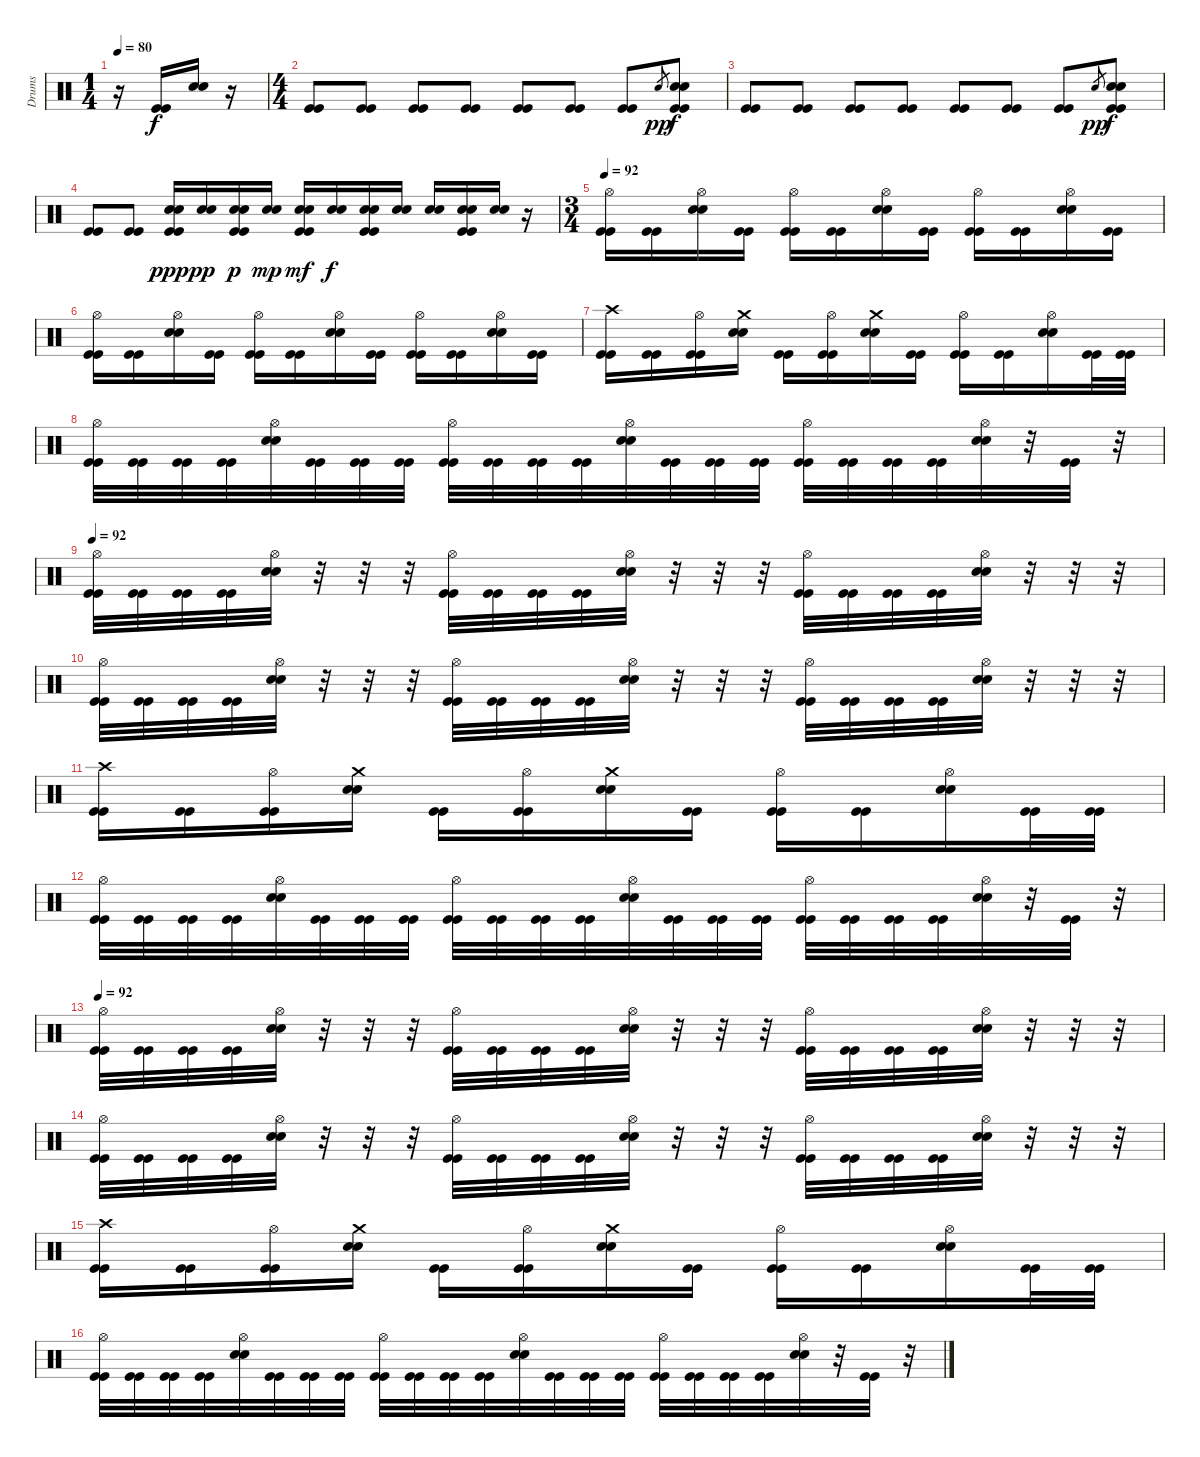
\track ("Drums" "Drums") {instrument percussion}
\staff {score}
\articulation defaults
\ts (1 4)
\tempo 80
\clef neutral
\ks c
r.16{dy f} ("Kick (hit)" "Kick (hit)").16 ("Snare (hit) 2" "Snare (hit) 2").16 r.16 |
\ts (4 4)
("Kick (hit)" "Kick (hit)").8 ("Kick (hit)" "Kick (hit)").8 ("Kick (hit)" "Kick (hit)").8 ("Kick (hit)" "Kick (hit)").8 ("Kick (hit)" "Kick (hit)").8 ("Kick (hit)" "Kick (hit)").8 ("Kick (hit)" "Kick (hit)").8 "Snare (hit) 2".8{gr dy pp} ("Snare (hit) 2" "Snare (hit) 2" "Kick (hit)" "Kick (hit)").8{dy f} |
("Kick (hit)" "Kick (hit)").8 ("Kick (hit)" "Kick (hit)").8 ("Kick (hit)" "Kick (hit)").8 ("Kick (hit)" "Kick (hit)").8 ("Kick (hit)" "Kick (hit)").8 ("Kick (hit)" "Kick (hit)").8 ("Kick (hit)" "Kick (hit)").8 "Snare (hit) 2".8{gr dy pp} ("Snare (hit) 2" "Snare (hit) 2" "Kick (hit)" "Kick (hit)").8{dy f} |
("Kick (hit)" "Kick (hit)").8 ("Kick (hit)" "Kick (hit)").8 ("Snare (hit) 2" "Snare (hit) 2" "Kick (hit)" "Kick (hit)").16{dy ppp} ("Snare (hit) 2" "Snare (hit) 2").16{dy pp} ("Snare (hit) 2" "Snare (hit) 2" "Kick (hit)" "Kick (hit)").16{dy p} ("Snare (hit) 2" "Snare (hit) 2").16{dy mp} ("Snare (hit) 2" "Snare (hit) 2" "Kick (hit)" "Kick (hit)").16{dy mf} ("Snare (hit) 2" "Snare (hit) 2").16{dy f} ("Snare (hit) 2" "Snare (hit) 2" "Kick (hit)" "Kick (hit)").16 ("Snare (hit) 2" "Snare (hit) 2").16 ("Snare (hit) 2" "Snare (hit) 2").16 ("Snare (hit) 2" "Snare (hit) 2" "Kick (hit)" "Kick (hit)").16 ("Snare (hit) 2" "Snare (hit) 2").16 r.16 |
\ts (3 4)
\tempo 92
("Hi-Hat (open)" "Kick (hit)" "Kick (hit)").16 ("Kick (hit)" "Kick (hit)").16 ("Hi-Hat (open)" "Snare (hit) 2" "Snare (hit) 2").16 ("Kick (hit)" "Kick (hit)").16 ("Hi-Hat (open)" "Kick (hit)" "Kick (hit)").16 ("Kick (hit)" "Kick (hit)").16 ("Hi-Hat (open)" "Snare (hit) 2" "Snare (hit) 2").16 ("Kick (hit)" "Kick (hit)").16 ("Hi-Hat (open)" "Kick (hit)" "Kick (hit)").16 ("Kick (hit)" "Kick (hit)").16 ("Hi-Hat (open)" "Snare (hit) 2" "Snare (hit) 2").16 ("Kick (hit)" "Kick (hit)").16 |
("Hi-Hat (open)" "Kick (hit)" "Kick (hit)").16 ("Kick (hit)" "Kick (hit)").16 ("Hi-Hat (open)" "Snare (hit) 2" "Snare (hit) 2").16 ("Kick (hit)" "Kick (hit)").16 ("Hi-Hat (open)" "Kick (hit)" "Kick (hit)").16 ("Kick (hit)" "Kick (hit)").16 ("Hi-Hat (open)" "Snare (hit) 2" "Snare (hit) 2").16 ("Kick (hit)" "Kick (hit)").16 ("Hi-Hat (open)" "Kick (hit)" "Kick (hit)").16 ("Kick (hit)" "Kick (hit)").16 ("Hi-Hat (open)" "Snare (hit) 2" "Snare (hit) 2").16 ("Kick (hit)" "Kick (hit)").16 |
("Crash high (hit)" "Kick (hit)" "Kick (hit)").16 ("Kick (hit)" "Kick (hit)").16 ("Hi-Hat (open)" "Kick (hit)" "Kick (hit)").16 ("Crash medium (hit)" "Snare (hit) 2" "Snare (hit) 2").16 ("Kick (hit)" "Kick (hit)").16 ("Hi-Hat (open)" "Kick (hit)" "Kick (hit)").16 ("Crash medium (hit)" "Snare (hit) 2" "Snare (hit) 2").16 ("Kick (hit)" "Kick (hit)").16 ("Hi-Hat (open)" "Kick (hit)" "Kick (hit)").16 ("Kick (hit)" "Kick (hit)").16 ("Hi-Hat (open)" "Snare (hit) 2" "Snare (hit) 2").16 ("Kick (hit)" "Kick (hit)").32 ("Kick (hit)" "Kick (hit)").32 |
("Hi-Hat (open)" "Kick (hit)" "Kick (hit)").32 ("Kick (hit)" "Kick (hit)").32 ("Kick (hit)" "Kick (hit)").32 ("Kick (hit)" "Kick (hit)").32 ("Hi-Hat (open)" "Snare (hit) 2" "Snare (hit) 2").32 ("Kick (hit)" "Kick (hit)").32 ("Kick (hit)" "Kick (hit)").32 ("Kick (hit)" "Kick (hit)").32 ("Hi-Hat (open)" "Kick (hit)" "Kick (hit)").32 ("Kick (hit)" "Kick (hit)").32 ("Kick (hit)" "Kick (hit)").32 ("Kick (hit)" "Kick (hit)").32 ("Hi-Hat (open)" "Snare (hit) 2" "Snare (hit) 2").32 ("Kick (hit)" "Kick (hit)").32 ("Kick (hit)" "Kick (hit)").32 ("Kick (hit)" "Kick (hit)").32 ("Hi-Hat (open)" "Kick (hit)" "Kick (hit)").32 ("Kick (hit)" "Kick (hit)").32 ("Kick (hit)" "Kick (hit)").32 ("Kick (hit)" "Kick (hit)").32 ("Hi-Hat (open)" "Snare (hit) 2" "Snare (hit) 2").32 r.32 ("Kick (hit)" "Kick (hit)").32 r.32 |
\tempo 92
("Hi-Hat (open)" "Kick (hit)" "Kick (hit)").32 ("Kick (hit)" "Kick (hit)").32 ("Kick (hit)" "Kick (hit)").32 ("Kick (hit)" "Kick (hit)").32 ("Hi-Hat (open)" "Snare (hit) 2" "Snare (hit) 2").32 r.32 r.32 r.32 ("Hi-Hat (open)" "Kick (hit)" "Kick (hit)").32 ("Kick (hit)" "Kick (hit)").32 ("Kick (hit)" "Kick (hit)").32 ("Kick (hit)" "Kick (hit)").32 ("Hi-Hat (open)" "Snare (hit) 2" "Snare (hit) 2").32 r.32 r.32 r.32 ("Hi-Hat (open)" "Kick (hit)" "Kick (hit)").32 ("Kick (hit)" "Kick (hit)").32 ("Kick (hit)" "Kick (hit)").32 ("Kick (hit)" "Kick (hit)").32 ("Hi-Hat (open)" "Snare (hit) 2" "Snare (hit) 2").32 r.32 r.32 r.32 |
("Hi-Hat (open)" "Kick (hit)" "Kick (hit)").32 ("Kick (hit)" "Kick (hit)").32 ("Kick (hit)" "Kick (hit)").32 ("Kick (hit)" "Kick (hit)").32 ("Hi-Hat (open)" "Snare (hit) 2" "Snare (hit) 2").32 r.32 r.32 r.32 ("Hi-Hat (open)" "Kick (hit)" "Kick (hit)").32 ("Kick (hit)" "Kick (hit)").32 ("Kick (hit)" "Kick (hit)").32 ("Kick (hit)" "Kick (hit)").32 ("Hi-Hat (open)" "Snare (hit) 2" "Snare (hit) 2").32 r.32 r.32 r.32 ("Hi-Hat (open)" "Kick (hit)" "Kick (hit)").32 ("Kick (hit)" "Kick (hit)").32 ("Kick (hit)" "Kick (hit)").32 ("Kick (hit)" "Kick (hit)").32 ("Hi-Hat (open)" "Snare (hit) 2" "Snare (hit) 2").32 r.32 r.32 r.32 |
("Crash high (hit)" "Kick (hit)" "Kick (hit)").16 ("Kick (hit)" "Kick (hit)").16 ("Hi-Hat (open)" "Kick (hit)" "Kick (hit)").16 ("Crash medium (hit)" "Snare (hit) 2" "Snare (hit) 2").16 ("Kick (hit)" "Kick (hit)").16 ("Hi-Hat (open)" "Kick (hit)" "Kick (hit)").16 ("Crash medium (hit)" "Snare (hit) 2" "Snare (hit) 2").16 ("Kick (hit)" "Kick (hit)").16 ("Hi-Hat (open)" "Kick (hit)" "Kick (hit)").16 ("Kick (hit)" "Kick (hit)").16 ("Hi-Hat (open)" "Snare (hit) 2" "Snare (hit) 2").16 ("Kick (hit)" "Kick (hit)").32 ("Kick (hit)" "Kick (hit)").32 |
("Hi-Hat (open)" "Kick (hit)" "Kick (hit)").32 ("Kick (hit)" "Kick (hit)").32 ("Kick (hit)" "Kick (hit)").32 ("Kick (hit)" "Kick (hit)").32 ("Hi-Hat (open)" "Snare (hit) 2" "Snare (hit) 2").32 ("Kick (hit)" "Kick (hit)").32 ("Kick (hit)" "Kick (hit)").32 ("Kick (hit)" "Kick (hit)").32 ("Hi-Hat (open)" "Kick (hit)" "Kick (hit)").32 ("Kick (hit)" "Kick (hit)").32 ("Kick (hit)" "Kick (hit)").32 ("Kick (hit)" "Kick (hit)").32 ("Hi-Hat (open)" "Snare (hit) 2" "Snare (hit) 2").32 ("Kick (hit)" "Kick (hit)").32 ("Kick (hit)" "Kick (hit)").32 ("Kick (hit)" "Kick (hit)").32 ("Hi-Hat (open)" "Kick (hit)" "Kick (hit)").32 ("Kick (hit)" "Kick (hit)").32 ("Kick (hit)" "Kick (hit)").32 ("Kick (hit)" "Kick (hit)").32 ("Hi-Hat (open)" "Snare (hit) 2" "Snare (hit) 2").32 r.32 ("Kick (hit)" "Kick (hit)").32 r.32 |
\tempo 92
("Hi-Hat (open)" "Kick (hit)" "Kick (hit)").32 ("Kick (hit)" "Kick (hit)").32 ("Kick (hit)" "Kick (hit)").32 ("Kick (hit)" "Kick (hit)").32 ("Hi-Hat (open)" "Snare (hit) 2" "Snare (hit) 2").32 r.32 r.32 r.32 ("Hi-Hat (open)" "Kick (hit)" "Kick (hit)").32 ("Kick (hit)" "Kick (hit)").32 ("Kick (hit)" "Kick (hit)").32 ("Kick (hit)" "Kick (hit)").32 ("Hi-Hat (open)" "Snare (hit) 2" "Snare (hit) 2").32 r.32 r.32 r.32 ("Hi-Hat (open)" "Kick (hit)" "Kick (hit)").32 ("Kick (hit)" "Kick (hit)").32 ("Kick (hit)" "Kick (hit)").32 ("Kick (hit)" "Kick (hit)").32 ("Hi-Hat (open)" "Snare (hit) 2" "Snare (hit) 2").32 r.32 r.32 r.32 |
("Hi-Hat (open)" "Kick (hit)" "Kick (hit)").32 ("Kick (hit)" "Kick (hit)").32 ("Kick (hit)" "Kick (hit)").32 ("Kick (hit)" "Kick (hit)").32 ("Hi-Hat (open)" "Snare (hit) 2" "Snare (hit) 2").32 r.32 r.32 r.32 ("Hi-Hat (open)" "Kick (hit)" "Kick (hit)").32 ("Kick (hit)" "Kick (hit)").32 ("Kick (hit)" "Kick (hit)").32 ("Kick (hit)" "Kick (hit)").32 ("Hi-Hat (open)" "Snare (hit) 2" "Snare (hit) 2").32 r.32 r.32 r.32 ("Hi-Hat (open)" "Kick (hit)" "Kick (hit)").32 ("Kick (hit)" "Kick (hit)").32 ("Kick (hit)" "Kick (hit)").32 ("Kick (hit)" "Kick (hit)").32 ("Hi-Hat (open)" "Snare (hit) 2" "Snare (hit) 2").32 r.32 r.32 r.32 |
("Crash high (hit)" "Kick (hit)" "Kick (hit)").16 ("Kick (hit)" "Kick (hit)").16 ("Hi-Hat (open)" "Kick (hit)" "Kick (hit)").16 ("Crash medium (hit)" "Snare (hit) 2" "Snare (hit) 2").16 ("Kick (hit)" "Kick (hit)").16 ("Hi-Hat (open)" "Kick (hit)" "Kick (hit)").16 ("Crash medium (hit)" "Snare (hit) 2" "Snare (hit) 2").16 ("Kick (hit)" "Kick (hit)").16 ("Hi-Hat (open)" "Kick (hit)" "Kick (hit)").16 ("Kick (hit)" "Kick (hit)").16 ("Hi-Hat (open)" "Snare (hit) 2" "Snare (hit) 2").16 ("Kick (hit)" "Kick (hit)").32 ("Kick (hit)" "Kick (hit)").32 |
("Hi-Hat (open)" "Kick (hit)" "Kick (hit)").32 ("Kick (hit)" "Kick (hit)").32 ("Kick (hit)" "Kick (hit)").32 ("Kick (hit)" "Kick (hit)").32 ("Hi-Hat (open)" "Snare (hit) 2" "Snare (hit) 2").32 ("Kick (hit)" "Kick (hit)").32 ("Kick (hit)" "Kick (hit)").32 ("Kick (hit)" "Kick (hit)").32 ("Hi-Hat (open)" "Kick (hit)" "Kick (hit)").32 ("Kick (hit)" "Kick (hit)").32 ("Kick (hit)" "Kick (hit)").32 ("Kick (hit)" "Kick (hit)").32 ("Hi-Hat (open)" "Snare (hit) 2" "Snare (hit) 2").32 ("Kick (hit)" "Kick (hit)").32 ("Kick (hit)" "Kick (hit)").32 ("Kick (hit)" "Kick (hit)").32 ("Hi-Hat (open)" "Kick (hit)" "Kick (hit)").32 ("Kick (hit)" "Kick (hit)").32 ("Kick (hit)" "Kick (hit)").32 ("Kick (hit)" "Kick (hit)").32 ("Hi-Hat (open)" "Snare (hit) 2" "Snare (hit) 2").32 r.32 ("Kick (hit)" "Kick (hit)").32 r.32
